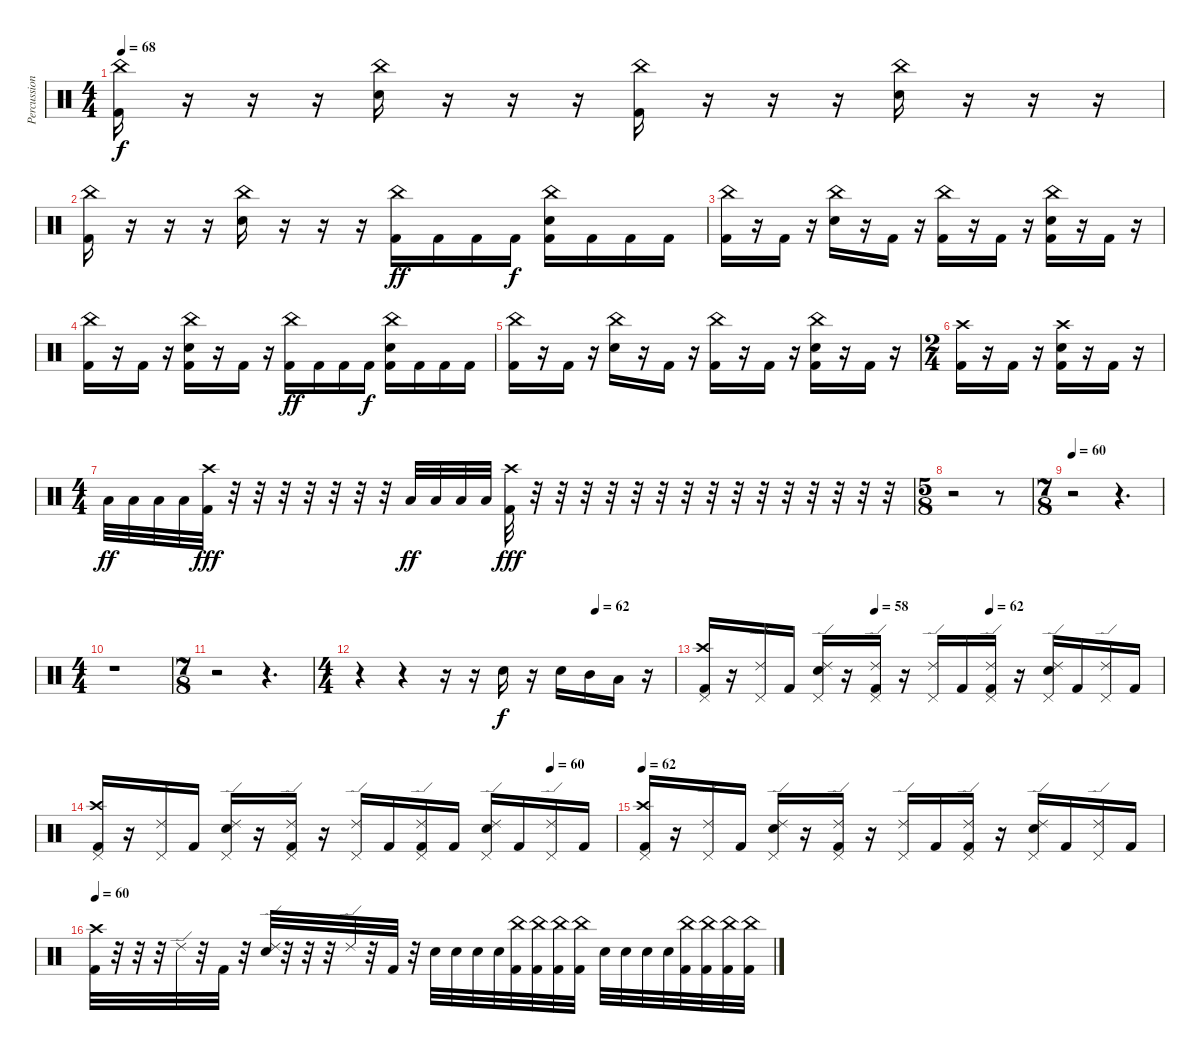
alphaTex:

\track ("Percussion" "Percussion") {instrument percussion}
\staff {score}
\articulation defaults
\ts (4 4)
\tempo 68
\clef neutral
\ks c
("China (hit)" "Kick (hit) 2").16{dy f} r.16 r.16 r.16 ("China (hit)" "Snare (hit) 2").16 r.16 r.16 r.16 ("China (hit)" "Kick (hit) 2").16 r.16 r.16 r.16 ("China (hit)" "Snare (hit) 2").16 r.16 r.16 r.16 |
("China (hit)" "Kick (hit) 2").16 r.16 r.16 r.16 ("China (hit)" "Snare (hit) 2").16 r.16 r.16 r.16 ("China (hit)" "Kick (hit) 2").16{dy ff} "Kick (hit) 2".16 "Kick (hit) 2".16 "Kick (hit) 2".16{dy f} ("China (hit)" "Snare (hit) 2" "Kick (hit) 2").16 "Kick (hit) 2".16 "Kick (hit) 2".16 "Kick (hit) 2".16 |
("China (hit)" "Kick (hit) 2").16 r.16 "Kick (hit) 2".16 r.16 ("China (hit)" "Snare (hit) 2").16 r.16 "Kick (hit) 2".16 r.16 ("China (hit)" "Kick (hit) 2").16 r.16 "Kick (hit) 2".16 r.16 ("China (hit)" "Snare (hit) 2" "Kick (hit) 2").16 r.16 "Kick (hit) 2".16 r.16 |
("China (hit)" "Kick (hit) 2").16 r.16 "Kick (hit) 2".16 r.16 ("China (hit)" "Snare (hit) 2" "Kick (hit) 2").16 r.16 "Kick (hit) 2".16 r.16 ("China (hit)" "Kick (hit) 2").16{dy ff} "Kick (hit) 2".16 "Kick (hit) 2".16 "Kick (hit) 2".16{dy f} ("China (hit)" "Snare (hit) 2" "Kick (hit) 2").16 "Kick (hit) 2".16 "Kick (hit) 2".16 "Kick (hit) 2".16 |
("China (hit)" "Kick (hit) 2").16 r.16 "Kick (hit) 2".16 r.16 ("China (hit)" "Snare (hit) 2").16 r.16 "Kick (hit) 2".16 r.16 ("China (hit)" "Kick (hit) 2").16 r.16 "Kick (hit) 2".16 r.16 ("China (hit)" "Snare (hit) 2" "Kick (hit) 2").16 r.16 "Kick (hit) 2".16 r.16 |
\ts (2 4)
("Crash high (hit)" "Kick (hit) 2").16 r.16 "Kick (hit) 2".16 r.16 ("Crash high (hit)" "Snare (hit) 2" "Kick (hit) 2").16 r.16 "Kick (hit) 2".16 r.16 |
\ts (4 4)
"Low Floor Tom (hit)".32{dy ff} "Low Floor Tom (hit)".32 "Low Floor Tom (hit)".32 "Low Floor Tom (hit)".32 ("Crash high (hit)" "Kick (hit) 2").32{dy fff} r.32 r.32 r.32 r.32 r.32 r.32 r.32 "Low Floor Tom (hit)".32{dy ff} "Low Floor Tom (hit)".32 "Low Floor Tom (hit)".32 "Low Floor Tom (hit)".32 ("Crash high (hit)" "Kick (hit) 2").32{dy fff} r.32 r.32 r.32 r.32 r.32 r.32 r.32 r.32 r.32 r.32 r.32 r.32 r.32 r.32 r.32 |
\ts (5 8)
r.2 r.8 |
\ts (7 8)
\tempo 60
r.2 r.4{d} |
\ts (4 4)
r.1 |
\ts (7 8)
r.2 r.4{d} |
\ts (4 4)
\tempo (62 0.75)
r.4 r.4 r.16 r.16 "Snare (hit) 2".16{dy f} r.16 "Snare (hit) 2".16 "Mid Tom (hit)".16 "Low Tom (hit)".16 r.16 |
\tempo (58 0.375)
\tempo (62 0.625)
("Crash high (hit)" "Pedal Hi-Hat (hit)" "Kick (hit) 2").16 r.16 ("Pedal Hi-Hat (hit)" "Ride (edge) 2").16 "Kick (hit) 2".16 ("Pedal Hi-Hat (hit)" "Ride (edge) 2" "Snare (hit) 2").16 r.16 ("Pedal Hi-Hat (hit)" "Ride (edge) 2" "Kick (hit) 2").16 r.16 ("Ride (edge) 2" "Pedal Hi-Hat (hit)").16 "Kick (hit) 2".16 ("Kick (hit) 2" "Ride (edge) 2" "Pedal Hi-Hat (hit)").16 r.16 ("Pedal Hi-Hat (hit)" "Ride (edge) 2" "Snare (hit) 2").16 "Kick (hit) 2".16 ("Pedal Hi-Hat (hit)" "Ride (edge) 2").16 "Kick (hit) 2".16 |
\tempo (60 0.875)
("Crash high (hit)" "Pedal Hi-Hat (hit)" "Kick (hit) 2").16 r.16 ("Pedal Hi-Hat (hit)" "Ride (edge) 2").16 "Kick (hit) 2".16 ("Pedal Hi-Hat (hit)" "Ride (edge) 2" "Snare (hit) 2").16 r.16 ("Pedal Hi-Hat (hit)" "Ride (edge) 2" "Kick (hit) 2").16 r.16 ("Ride (edge) 2" "Pedal Hi-Hat (hit)").16 "Kick (hit) 2".16 ("Kick (hit) 2" "Ride (edge) 2" "Pedal Hi-Hat (hit)").16 "Kick (hit) 2".16 ("Pedal Hi-Hat (hit)" "Ride (edge) 2" "Snare (hit) 2").16 "Kick (hit) 2".16 ("Pedal Hi-Hat (hit)" "Ride (edge) 2").16 "Kick (hit) 2".16 |
\tempo 62
("Crash high (hit)" "Pedal Hi-Hat (hit)" "Kick (hit) 2").16 r.16 ("Pedal Hi-Hat (hit)" "Ride (edge) 2").16 "Kick (hit) 2".16 ("Pedal Hi-Hat (hit)" "Ride (edge) 2" "Snare (hit) 2").16 r.16 ("Pedal Hi-Hat (hit)" "Ride (edge) 2" "Kick (hit) 2").16 r.16 ("Ride (edge) 2" "Pedal Hi-Hat (hit)").16 "Kick (hit) 2".16 ("Kick (hit) 2" "Ride (edge) 2" "Pedal Hi-Hat (hit)").16 r.16 ("Pedal Hi-Hat (hit)" "Ride (edge) 2" "Snare (hit) 2").16 "Kick (hit) 2".16 ("Pedal Hi-Hat (hit)" "Ride (edge) 2").16 "Kick (hit) 2".16 |
\tempo 60
("Crash high (hit)" "Kick (hit) 2").32 r.32 r.32 r.32 "Ride (edge) 2".32 r.32 "Kick (hit) 2".32 r.32 ("Ride (edge) 2" "Snare (hit) 2").32 r.32 r.32 r.32 "Ride (edge) 2".32 r.32 "Kick (hit) 2".32 r.32 "Snare (hit) 2".32 "Snare (hit) 2".32 "Snare (hit) 2".32 "Snare (hit) 2".32 ("China (hit)" "Kick (hit) 2").32 ("China (hit)" "Kick (hit) 2").32 ("China (hit)" "Kick (hit) 2").32 ("China (hit)" "Kick (hit) 2").32 "Snare (hit) 2".32 "Snare (hit) 2".32 "Snare (hit) 2".32 "Snare (hit) 2".32 ("China (hit)" "Kick (hit) 2").32 ("China (hit)" "Kick (hit) 2").32 ("China (hit)" "Kick (hit) 2").32 ("China (hit)" "Kick (hit) 2").32
